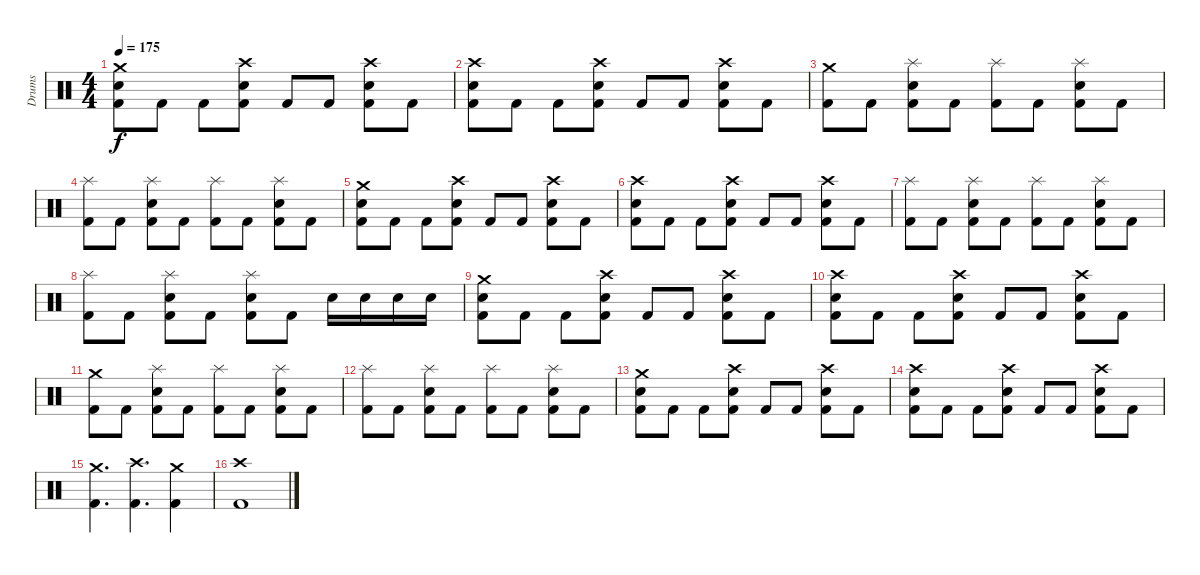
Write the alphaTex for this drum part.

\track ("Drums" "Drums") {instrument percussion}
\staff {score}
\articulation defaults
\ts (4 4)
\tempo 175
\clef neutral
\ks c
("Crash medium (hit)" "Electric Snare (hit)" "Kick (hit) 2").8{dy f} "Kick (hit) 2".8 "Kick (hit) 2".8 ("Crash high (hit)" "Electric Snare (hit)" "Kick (hit) 2").8 "Kick (hit) 2".8 "Kick (hit) 2".8 ("Crash high (hit)" "Electric Snare (hit)" "Kick (hit) 2").8 "Kick (hit) 2".8 |
("Crash high (hit)" "Electric Snare (hit)" "Kick (hit) 2").8 "Kick (hit) 2".8 "Kick (hit) 2".8 ("Crash high (hit)" "Electric Snare (hit)" "Kick (hit) 2").8 "Kick (hit) 2".8 "Kick (hit) 2".8 ("Crash high (hit)" "Electric Snare (hit)" "Kick (hit) 2").8 "Kick (hit) 2".8 |
("Crash medium (hit)" "Kick (hit) 2").8 "Kick (hit) 2".8 ("Splash (hit)" "Electric Snare (hit)" "Kick (hit) 2").8 "Kick (hit) 2".8 ("Splash (hit)" "Kick (hit) 2").8 "Kick (hit) 2".8 ("Splash (hit)" "Electric Snare (hit)" "Kick (hit) 2").8 "Kick (hit) 2".8 |
("Splash (hit)" "Kick (hit) 2").8 "Kick (hit) 2".8 ("Splash (hit)" "Electric Snare (hit)" "Kick (hit) 2").8 "Kick (hit) 2".8 ("Splash (hit)" "Kick (hit) 2").8 "Kick (hit) 2".8 ("Splash (hit)" "Electric Snare (hit)" "Kick (hit) 2").8 "Kick (hit) 2".8 |
("Crash medium (hit)" "Electric Snare (hit)" "Kick (hit) 2").8 "Kick (hit) 2".8 "Kick (hit) 2".8 ("Crash high (hit)" "Electric Snare (hit)" "Kick (hit) 2").8 "Kick (hit) 2".8 "Kick (hit) 2".8 ("Crash high (hit)" "Electric Snare (hit)" "Kick (hit) 2").8 "Kick (hit) 2".8 |
("Crash high (hit)" "Electric Snare (hit)" "Kick (hit) 2").8 "Kick (hit) 2".8 "Kick (hit) 2".8 ("Crash high (hit)" "Electric Snare (hit)" "Kick (hit) 2").8 "Kick (hit) 2".8 "Kick (hit) 2".8 ("Crash high (hit)" "Electric Snare (hit)" "Kick (hit) 2").8 "Kick (hit) 2".8 |
("Splash (hit)" "Kick (hit) 2").8 "Kick (hit) 2".8 ("Splash (hit)" "Electric Snare (hit)" "Kick (hit) 2").8 "Kick (hit) 2".8 ("Splash (hit)" "Kick (hit) 2").8 "Kick (hit) 2".8 ("Splash (hit)" "Electric Snare (hit)" "Kick (hit) 2").8 "Kick (hit) 2".8 |
("Splash (hit)" "Kick (hit) 2").8 "Kick (hit) 2".8 ("Splash (hit)" "Electric Snare (hit)" "Kick (hit) 2").8 "Kick (hit) 2".8 ("Splash (hit)" "Electric Snare (hit)" "Kick (hit) 2").8 "Kick (hit) 2".8 "Electric Snare (hit)".16 "Electric Snare (hit)".16 "Electric Snare (hit)".16 "Electric Snare (hit)".16 |
("Crash medium (hit)" "Electric Snare (hit)" "Kick (hit) 2").8 "Kick (hit) 2".8 "Kick (hit) 2".8 ("Crash high (hit)" "Electric Snare (hit)" "Kick (hit) 2").8 "Kick (hit) 2".8 "Kick (hit) 2".8 ("Crash high (hit)" "Electric Snare (hit)" "Kick (hit) 2").8 "Kick (hit) 2".8 |
("Crash high (hit)" "Electric Snare (hit)" "Kick (hit) 2").8 "Kick (hit) 2".8 "Kick (hit) 2".8 ("Crash high (hit)" "Electric Snare (hit)" "Kick (hit) 2").8 "Kick (hit) 2".8 "Kick (hit) 2".8 ("Crash high (hit)" "Electric Snare (hit)" "Kick (hit) 2").8 "Kick (hit) 2".8 |
("Crash medium (hit)" "Kick (hit) 2").8 "Kick (hit) 2".8 ("Splash (hit)" "Electric Snare (hit)" "Kick (hit) 2").8 "Kick (hit) 2".8 ("Splash (hit)" "Kick (hit) 2").8 "Kick (hit) 2".8 ("Splash (hit)" "Electric Snare (hit)" "Kick (hit) 2").8 "Kick (hit) 2".8 |
("Splash (hit)" "Kick (hit) 2").8 "Kick (hit) 2".8 ("Splash (hit)" "Electric Snare (hit)" "Kick (hit) 2").8 "Kick (hit) 2".8 ("Splash (hit)" "Kick (hit) 2").8 "Kick (hit) 2".8 ("Splash (hit)" "Electric Snare (hit)" "Kick (hit) 2").8 "Kick (hit) 2".8 |
("Crash medium (hit)" "Electric Snare (hit)" "Kick (hit) 2").8 "Kick (hit) 2".8 "Kick (hit) 2".8 ("Crash high (hit)" "Electric Snare (hit)" "Kick (hit) 2").8 "Kick (hit) 2".8 "Kick (hit) 2".8 ("Crash high (hit)" "Electric Snare (hit)" "Kick (hit) 2").8 "Kick (hit) 2".8 |
("Crash high (hit)" "Electric Snare (hit)" "Kick (hit) 2").8 "Kick (hit) 2".8 "Kick (hit) 2".8 ("Crash high (hit)" "Electric Snare (hit)" "Kick (hit) 2").8 "Kick (hit) 2".8 "Kick (hit) 2".8 ("Crash high (hit)" "Electric Snare (hit)" "Kick (hit) 2").8 "Kick (hit) 2".8 |
("Crash medium (hit)" "Kick (hit) 2").4{d} ("Crash high (hit)" "Kick (hit) 2").4{d} ("Crash medium (hit)" "Kick (hit) 2").4 |
("Crash high (hit)" "Kick (hit) 2").1
